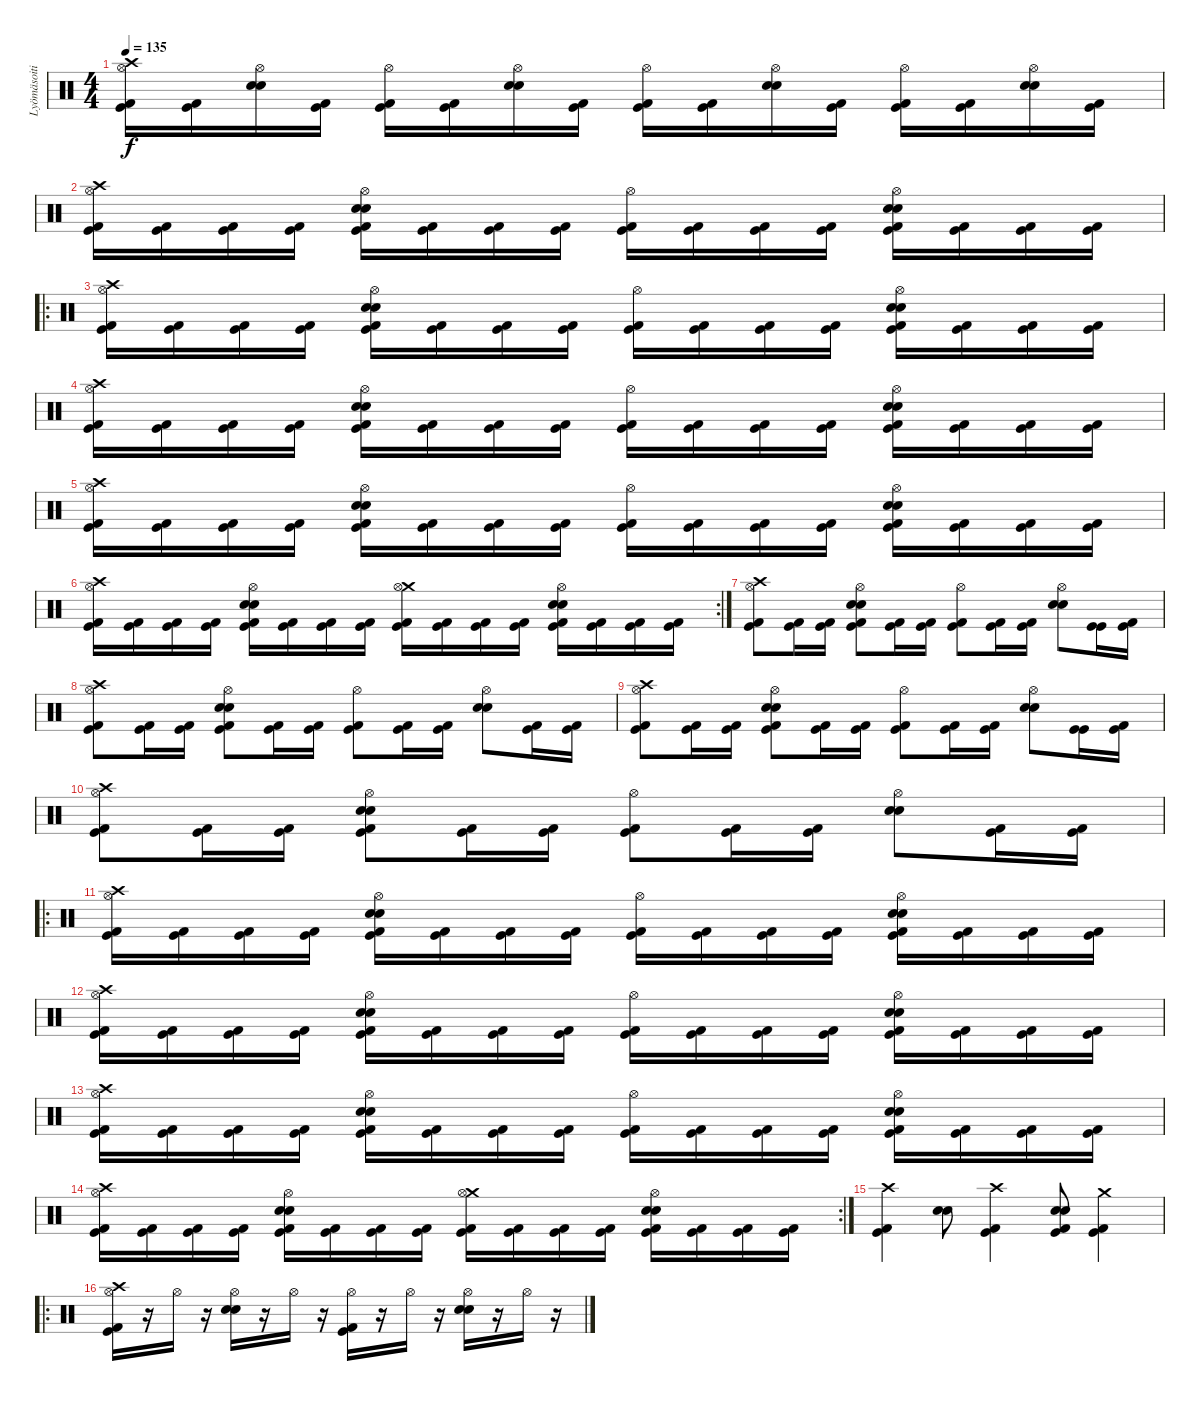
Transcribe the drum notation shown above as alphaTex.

\track ("Lyömäsoitin" "Lyömäsoiti") {instrument percussion}
\staff {score}
\articulation defaults
\ts (4 4)
\tempo 135
\clef neutral
\ks c
("Crash high (hit)" "Hi-Hat (open)" "Kick (hit)" "Kick (hit) 2").16{dy f} ("Kick (hit)" "Kick (hit) 2").16 ("Hi-Hat (open)" "Snare (hit) 2" "Electric Snare (hit)").16 ("Kick (hit)" "Kick (hit) 2").16 ("Hi-Hat (open)" "Kick (hit)" "Kick (hit) 2").16 ("Kick (hit)" "Kick (hit) 2").16 ("Hi-Hat (open)" "Snare (hit) 2" "Electric Snare (hit)").16 ("Kick (hit)" "Kick (hit) 2").16 ("Hi-Hat (open)" "Kick (hit)" "Kick (hit) 2").16 ("Kick (hit)" "Kick (hit) 2").16 ("Hi-Hat (open)" "Electric Snare (hit)" "Snare (hit) 2").16 ("Kick (hit) 2" "Kick (hit)").16 ("Hi-Hat (open)" "Kick (hit)" "Kick (hit) 2").16 ("Kick (hit) 2" "Kick (hit)").16 ("Hi-Hat (open)" "Electric Snare (hit)" "Snare (hit) 2").16 ("Kick (hit) 2" "Kick (hit)").16 |
("Crash high (hit)" "Hi-Hat (open)" "Kick (hit) 2" "Kick (hit)").16 ("Kick (hit) 2" "Kick (hit)").16 ("Kick (hit) 2" "Kick (hit)").16 ("Kick (hit) 2" "Kick (hit)").16 ("Hi-Hat (open)" "Electric Snare (hit)" "Snare (hit) 2" "Kick (hit) 2" "Kick (hit)").16 ("Kick (hit) 2" "Kick (hit)").16 ("Kick (hit) 2" "Kick (hit)").16 ("Kick (hit) 2" "Kick (hit)").16 ("Hi-Hat (open)" "Kick (hit) 2" "Kick (hit)").16 ("Kick (hit) 2" "Kick (hit)").16 ("Kick (hit) 2" "Kick (hit)").16 ("Kick (hit) 2" "Kick (hit)").16 ("Hi-Hat (open)" "Electric Snare (hit)" "Snare (hit) 2" "Kick (hit) 2" "Kick (hit)").16 ("Kick (hit) 2" "Kick (hit)").16 ("Kick (hit) 2" "Kick (hit)").16 ("Kick (hit) 2" "Kick (hit)").16 |
\ro
("Crash high (hit)" "Hi-Hat (open)" "Kick (hit) 2" "Kick (hit)").16 ("Kick (hit) 2" "Kick (hit)").16 ("Kick (hit) 2" "Kick (hit)").16 ("Kick (hit) 2" "Kick (hit)").16 ("Hi-Hat (open)" "Electric Snare (hit)" "Snare (hit) 2" "Kick (hit) 2" "Kick (hit)").16 ("Kick (hit) 2" "Kick (hit)").16 ("Kick (hit) 2" "Kick (hit)").16 ("Kick (hit) 2" "Kick (hit)").16 ("Hi-Hat (open)" "Kick (hit) 2" "Kick (hit)").16 ("Kick (hit) 2" "Kick (hit)").16 ("Kick (hit) 2" "Kick (hit)").16 ("Kick (hit) 2" "Kick (hit)").16 ("Hi-Hat (open)" "Electric Snare (hit)" "Snare (hit) 2" "Kick (hit) 2" "Kick (hit)").16 ("Kick (hit) 2" "Kick (hit)").16 ("Kick (hit) 2" "Kick (hit)").16 ("Kick (hit) 2" "Kick (hit)").16 |
("Crash high (hit)" "Hi-Hat (open)" "Kick (hit) 2" "Kick (hit)").16 ("Kick (hit) 2" "Kick (hit)").16 ("Kick (hit) 2" "Kick (hit)").16 ("Kick (hit) 2" "Kick (hit)").16 ("Hi-Hat (open)" "Electric Snare (hit)" "Snare (hit) 2" "Kick (hit) 2" "Kick (hit)").16 ("Kick (hit) 2" "Kick (hit)").16 ("Kick (hit) 2" "Kick (hit)").16 ("Kick (hit) 2" "Kick (hit)").16 ("Hi-Hat (open)" "Kick (hit) 2" "Kick (hit)").16 ("Kick (hit) 2" "Kick (hit)").16 ("Kick (hit) 2" "Kick (hit)").16 ("Kick (hit) 2" "Kick (hit)").16 ("Hi-Hat (open)" "Electric Snare (hit)" "Snare (hit) 2" "Kick (hit) 2" "Kick (hit)").16 ("Kick (hit) 2" "Kick (hit)").16 ("Kick (hit) 2" "Kick (hit)").16 ("Kick (hit) 2" "Kick (hit)").16 |
("Crash high (hit)" "Hi-Hat (open)" "Kick (hit) 2" "Kick (hit)").16 ("Kick (hit) 2" "Kick (hit)").16 ("Kick (hit) 2" "Kick (hit)").16 ("Kick (hit) 2" "Kick (hit)").16 ("Hi-Hat (open)" "Electric Snare (hit)" "Snare (hit) 2" "Kick (hit) 2" "Kick (hit)").16 ("Kick (hit) 2" "Kick (hit)").16 ("Kick (hit) 2" "Kick (hit)").16 ("Kick (hit) 2" "Kick (hit)").16 ("Hi-Hat (open)" "Kick (hit) 2" "Kick (hit)").16 ("Kick (hit) 2" "Kick (hit)").16 ("Kick (hit) 2" "Kick (hit)").16 ("Kick (hit) 2" "Kick (hit)").16 ("Hi-Hat (open)" "Electric Snare (hit)" "Snare (hit) 2" "Kick (hit) 2" "Kick (hit)").16 ("Kick (hit) 2" "Kick (hit)").16 ("Kick (hit) 2" "Kick (hit)").16 ("Kick (hit) 2" "Kick (hit)").16 |
\rc 2
("Crash high (hit)" "Hi-Hat (open)" "Kick (hit) 2" "Kick (hit)").16 ("Kick (hit) 2" "Kick (hit)").16 ("Kick (hit) 2" "Kick (hit)").16 ("Kick (hit) 2" "Kick (hit)").16 ("Hi-Hat (open)" "Electric Snare (hit)" "Snare (hit) 2" "Kick (hit) 2" "Kick (hit)").16 ("Kick (hit) 2" "Kick (hit)").16 ("Kick (hit) 2" "Kick (hit)").16 ("Kick (hit) 2" "Kick (hit)").16 ("Crash medium (hit)" "Hi-Hat (open)" "Kick (hit) 2" "Kick (hit)").16 ("Kick (hit) 2" "Kick (hit)").16 ("Kick (hit) 2" "Kick (hit)").16 ("Kick (hit) 2" "Kick (hit)").16 ("Hi-Hat (open)" "Electric Snare (hit)" "Snare (hit) 2" "Kick (hit) 2" "Kick (hit)").16 ("Kick (hit) 2" "Kick (hit)").16 ("Kick (hit) 2" "Kick (hit)").16 ("Kick (hit) 2" "Kick (hit)").16 |
("Crash high (hit)" "Hi-Hat (open)" "Kick (hit) 2" "Kick (hit)").8 ("Kick (hit) 2" "Kick (hit)").16 ("Kick (hit) 2" "Kick (hit)").16 ("Hi-Hat (open)" "Snare (hit) 2" "Electric Snare (hit)" "Kick (hit) 2" "Kick (hit)").8 ("Kick (hit) 2" "Kick (hit)").16 ("Kick (hit) 2" "Kick (hit)").16 ("Hi-Hat (open)" "Kick (hit) 2" "Kick (hit)").8 ("Kick (hit) 2" "Kick (hit)").16 ("Kick (hit) 2" "Kick (hit)").16 ("Hi-Hat (open)" "Snare (hit) 2" "Electric Snare (hit)").8 ("Kick (hit)" "Kick (hit)").16 ("Kick (hit) 2" "Kick (hit)").16 |
("Crash high (hit)" "Hi-Hat (open)" "Kick (hit) 2" "Kick (hit)").8 ("Kick (hit) 2" "Kick (hit)").16 ("Kick (hit) 2" "Kick (hit)").16 ("Hi-Hat (open)" "Snare (hit) 2" "Electric Snare (hit)" "Kick (hit) 2" "Kick (hit)").8 ("Kick (hit) 2" "Kick (hit)").16 ("Kick (hit) 2" "Kick (hit)").16 ("Hi-Hat (open)" "Kick (hit) 2" "Kick (hit)").8 ("Kick (hit) 2" "Kick (hit)").16 ("Kick (hit) 2" "Kick (hit)").16 ("Hi-Hat (open)" "Snare (hit) 2" "Electric Snare (hit)").8 ("Kick (hit)" "Kick (hit) 2").16 ("Kick (hit)" "Kick (hit) 2").16 |
("Crash high (hit)" "Hi-Hat (open)" "Kick (hit) 2" "Kick (hit)").8 ("Kick (hit) 2" "Kick (hit)").16 ("Kick (hit) 2" "Kick (hit)").16 ("Hi-Hat (open)" "Snare (hit) 2" "Electric Snare (hit)" "Kick (hit) 2" "Kick (hit)").8 ("Kick (hit) 2" "Kick (hit)").16 ("Kick (hit) 2" "Kick (hit)").16 ("Hi-Hat (open)" "Kick (hit) 2" "Kick (hit)").8 ("Kick (hit) 2" "Kick (hit)").16 ("Kick (hit) 2" "Kick (hit)").16 ("Hi-Hat (open)" "Snare (hit) 2" "Electric Snare (hit)").8 ("Kick (hit)" "Kick (hit)").16 ("Kick (hit) 2" "Kick (hit)").16 |
("Crash high (hit)" "Hi-Hat (open)" "Kick (hit) 2" "Kick (hit)").8 ("Kick (hit) 2" "Kick (hit)").16 ("Kick (hit) 2" "Kick (hit)").16 ("Hi-Hat (open)" "Snare (hit) 2" "Electric Snare (hit)" "Kick (hit) 2" "Kick (hit)").8 ("Kick (hit) 2" "Kick (hit)").16 ("Kick (hit) 2" "Kick (hit)").16 ("Hi-Hat (open)" "Kick (hit) 2" "Kick (hit)").8 ("Kick (hit) 2" "Kick (hit)").16 ("Kick (hit) 2" "Kick (hit)").16 ("Hi-Hat (open)" "Snare (hit) 2" "Electric Snare (hit)").8 ("Kick (hit)" "Kick (hit) 2").16 ("Kick (hit)" "Kick (hit) 2").16 |
\ro
("Crash high (hit)" "Hi-Hat (open)" "Kick (hit) 2" "Kick (hit)").16 ("Kick (hit) 2" "Kick (hit)").16 ("Kick (hit) 2" "Kick (hit)").16 ("Kick (hit) 2" "Kick (hit)").16 ("Hi-Hat (open)" "Electric Snare (hit)" "Snare (hit) 2" "Kick (hit) 2" "Kick (hit)").16 ("Kick (hit) 2" "Kick (hit)").16 ("Kick (hit) 2" "Kick (hit)").16 ("Kick (hit) 2" "Kick (hit)").16 ("Hi-Hat (open)" "Kick (hit) 2" "Kick (hit)").16 ("Kick (hit) 2" "Kick (hit)").16 ("Kick (hit) 2" "Kick (hit)").16 ("Kick (hit) 2" "Kick (hit)").16 ("Hi-Hat (open)" "Electric Snare (hit)" "Snare (hit) 2" "Kick (hit) 2" "Kick (hit)").16 ("Kick (hit) 2" "Kick (hit)").16 ("Kick (hit) 2" "Kick (hit)").16 ("Kick (hit) 2" "Kick (hit)").16 |
("Crash high (hit)" "Hi-Hat (open)" "Kick (hit) 2" "Kick (hit)").16 ("Kick (hit) 2" "Kick (hit)").16 ("Kick (hit) 2" "Kick (hit)").16 ("Kick (hit) 2" "Kick (hit)").16 ("Hi-Hat (open)" "Electric Snare (hit)" "Snare (hit) 2" "Kick (hit) 2" "Kick (hit)").16 ("Kick (hit) 2" "Kick (hit)").16 ("Kick (hit) 2" "Kick (hit)").16 ("Kick (hit) 2" "Kick (hit)").16 ("Hi-Hat (open)" "Kick (hit) 2" "Kick (hit)").16 ("Kick (hit) 2" "Kick (hit)").16 ("Kick (hit) 2" "Kick (hit)").16 ("Kick (hit) 2" "Kick (hit)").16 ("Hi-Hat (open)" "Electric Snare (hit)" "Snare (hit) 2" "Kick (hit) 2" "Kick (hit)").16 ("Kick (hit) 2" "Kick (hit)").16 ("Kick (hit) 2" "Kick (hit)").16 ("Kick (hit) 2" "Kick (hit)").16 |
("Crash high (hit)" "Hi-Hat (open)" "Kick (hit) 2" "Kick (hit)").16 ("Kick (hit) 2" "Kick (hit)").16 ("Kick (hit) 2" "Kick (hit)").16 ("Kick (hit) 2" "Kick (hit)").16 ("Hi-Hat (open)" "Electric Snare (hit)" "Snare (hit) 2" "Kick (hit) 2" "Kick (hit)").16 ("Kick (hit) 2" "Kick (hit)").16 ("Kick (hit) 2" "Kick (hit)").16 ("Kick (hit) 2" "Kick (hit)").16 ("Hi-Hat (open)" "Kick (hit) 2" "Kick (hit)").16 ("Kick (hit) 2" "Kick (hit)").16 ("Kick (hit) 2" "Kick (hit)").16 ("Kick (hit) 2" "Kick (hit)").16 ("Hi-Hat (open)" "Electric Snare (hit)" "Snare (hit) 2" "Kick (hit) 2" "Kick (hit)").16 ("Kick (hit) 2" "Kick (hit)").16 ("Kick (hit) 2" "Kick (hit)").16 ("Kick (hit) 2" "Kick (hit)").16 |
\rc 2
("Crash high (hit)" "Hi-Hat (open)" "Kick (hit) 2" "Kick (hit)").16 ("Kick (hit) 2" "Kick (hit)").16 ("Kick (hit) 2" "Kick (hit)").16 ("Kick (hit) 2" "Kick (hit)").16 ("Hi-Hat (open)" "Electric Snare (hit)" "Snare (hit) 2" "Kick (hit) 2" "Kick (hit)").16 ("Kick (hit) 2" "Kick (hit)").16 ("Kick (hit) 2" "Kick (hit)").16 ("Kick (hit) 2" "Kick (hit)").16 ("Crash medium (hit)" "Hi-Hat (open)" "Kick (hit) 2" "Kick (hit)").16 ("Kick (hit) 2" "Kick (hit)").16 ("Kick (hit) 2" "Kick (hit)").16 ("Kick (hit) 2" "Kick (hit)").16 ("Hi-Hat (open)" "Electric Snare (hit)" "Snare (hit) 2" "Kick (hit) 2" "Kick (hit)").16 ("Kick (hit) 2" "Kick (hit)").16 ("Kick (hit) 2" "Kick (hit)").16 ("Kick (hit) 2" "Kick (hit)").16 |
("Crash high (hit)" "Kick (hit) 2" "Kick (hit)").4 ("Electric Snare (hit)" "Snare (hit) 2").8 ("Crash high (hit)" "Kick (hit)" "Kick (hit) 2").4 ("Electric Snare (hit)" "Snare (hit) 2" "Kick (hit) 2" "Kick (hit)").8 ("Crash medium (hit)" "Kick (hit) 2" "Kick (hit)").4 |
\ro
("Crash high (hit)" "Hi-Hat (open)" "Kick (hit) 2" "Kick (hit)").16 r.16 "Hi-Hat (open)".16 r.16 ("Hi-Hat (open)" "Electric Snare (hit)" "Snare (hit) 2").16 r.16 "Hi-Hat (open)".16 r.16 ("Hi-Hat (open)" "Kick (hit) 2" "Kick (hit)").16 r.16 "Hi-Hat (open)".16 r.16 ("Hi-Hat (open)" "Electric Snare (hit)" "Snare (hit) 2").16 r.16 "Hi-Hat (open)".16 r.16
